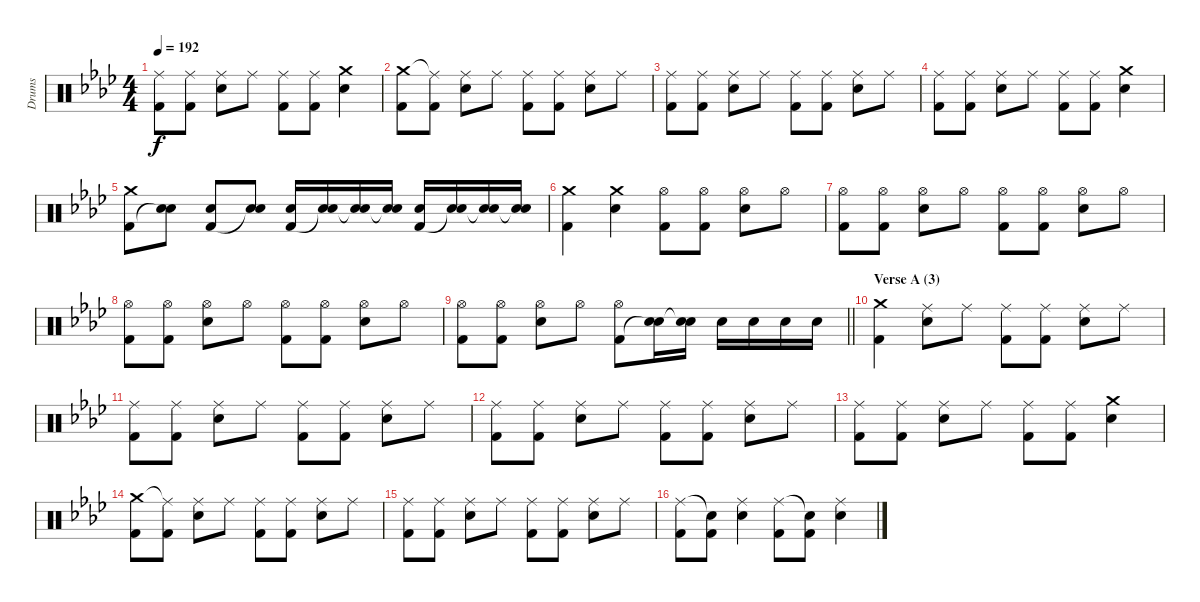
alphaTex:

\track ("Drums" "Drums") {instrument percussion}
\staff {score}
\articulation defaults
\ts (4 4)
\tempo 192
\clef neutral
\ks ab
("Ride (middle)" "Kick (hit) 2").8{dy f} ("Ride (middle)" "Kick (hit) 2").8 ("Ride (middle)" "Electric Snare (hit)").8 "Ride (middle)".8 ("Ride (middle)" "Kick (hit) 2").8 ("Ride (middle)" "Kick (hit) 2").8 ("Crash medium (hit)" "Electric Snare (hit)").4 |
("Crash medium (hit)" "Kick (hit) 2").8 ("Ride (middle)"{t} "Kick (hit) 2").8 ("Ride (middle)" "Electric Snare (hit)").8 "Ride (middle)".8 ("Ride (middle)" "Kick (hit) 2").8 ("Ride (middle)" "Kick (hit) 2").8 ("Ride (middle)" "Electric Snare (hit)").8 "Ride (middle)".8 |
("Ride (middle)" "Kick (hit) 2").8 ("Ride (middle)" "Kick (hit) 2").8 ("Ride (middle)" "Electric Snare (hit)").8 "Ride (middle)".8 ("Ride (middle)" "Kick (hit) 2").8 ("Ride (middle)" "Kick (hit) 2").8 ("Ride (middle)" "Electric Snare (hit)").8 "Ride (middle)".8 |
("Ride (middle)" "Kick (hit) 2").8 ("Ride (middle)" "Kick (hit) 2").8 ("Ride (middle)" "Electric Snare (hit)").8 "Ride (middle)".8 ("Ride (middle)" "Kick (hit) 2").8 ("Ride (middle)" "Kick (hit) 2").8 ("Crash medium (hit)" "Electric Snare (hit)").4 |
("Crash medium (hit)" "Kick (hit) 2").8 ("Electric Snare (hit)" "Snare (hit)"{t}).8 ("Electric Snare (hit)" "Kick (hit) 2").8 ("Electric Snare (hit)" "Snare (hit)"{t}).8 ("Electric Snare (hit)" "Kick (hit) 2").16 ("Electric Snare (hit)" "Snare (hit)"{t}).16 ("Electric Snare (hit)" "Snare (hit)"{t}).16 ("Electric Snare (hit)" "Snare (hit)"{t}).16 ("Electric Snare (hit)" "Kick (hit) 2").16 ("Electric Snare (hit)" "Snare (hit)"{t}).16 ("Electric Snare (hit)" "Snare (hit)"{t}).16 ("Electric Snare (hit)" "Snare (hit)"{t}).16 |
("Crash medium (hit)" "Kick (hit) 2").4 ("Crash medium (hit)" "Electric Snare (hit)").4 ("Hi-Hat (open)" "Kick (hit) 2").8 ("Hi-Hat (open)" "Kick (hit) 2").8 ("Hi-Hat (open)" "Electric Snare (hit)").8 "Hi-Hat (open)".8 |
("Hi-Hat (open)" "Kick (hit) 2").8 ("Hi-Hat (open)" "Kick (hit) 2").8 ("Hi-Hat (open)" "Electric Snare (hit)").8 "Hi-Hat (open)".8 ("Hi-Hat (open)" "Kick (hit) 2").8 ("Hi-Hat (open)" "Kick (hit) 2").8 ("Hi-Hat (open)" "Electric Snare (hit)").8 "Hi-Hat (open)".8 |
("Hi-Hat (open)" "Kick (hit) 2").8 ("Hi-Hat (open)" "Kick (hit) 2").8 ("Hi-Hat (open)" "Electric Snare (hit)").8 "Hi-Hat (open)".8 ("Hi-Hat (open)" "Kick (hit) 2").8 ("Hi-Hat (open)" "Kick (hit) 2").8 ("Hi-Hat (open)" "Electric Snare (hit)").8 "Hi-Hat (open)".8 |
\barLineRight lightlight
("Hi-Hat (open)" "Kick (hit) 2").8 ("Hi-Hat (open)" "Kick (hit) 2").8 ("Hi-Hat (open)" "Electric Snare (hit)").8 "Hi-Hat (open)".8 ("Hi-Hat (open)" "Kick (hit) 2").8 ("Electric Snare (hit)" "Snare (hit)"{t}).16 ("Electric Snare (hit)" "Snare (hit)"{t}).16 "Electric Snare (hit)".16 "Electric Snare (hit)".16 "Electric Snare (hit)".16 "Electric Snare (hit)".16 |
\section ("" "Verse A (3)")
("Crash medium (hit)" "Kick (hit) 2").4 ("Ride (middle)" "Electric Snare (hit)").8 "Ride (middle)".8 ("Ride (middle)" "Kick (hit) 2").8 ("Ride (middle)" "Kick (hit) 2").8 ("Ride (middle)" "Electric Snare (hit)").8 "Ride (middle)".8 |
("Ride (middle)" "Kick (hit) 2").8 ("Ride (middle)" "Kick (hit) 2").8 ("Ride (middle)" "Electric Snare (hit)").8 "Ride (middle)".8 ("Ride (middle)" "Kick (hit) 2").8 ("Ride (middle)" "Kick (hit) 2").8 ("Ride (middle)" "Electric Snare (hit)").8 "Ride (middle)".8 |
("Ride (middle)" "Kick (hit) 2").8 ("Ride (middle)" "Kick (hit) 2").8 ("Ride (middle)" "Electric Snare (hit)").8 "Ride (middle)".8 ("Ride (middle)" "Kick (hit) 2").8 ("Ride (middle)" "Kick (hit) 2").8 ("Ride (middle)" "Electric Snare (hit)").8 "Ride (middle)".8 |
("Ride (middle)" "Kick (hit) 2").8 ("Ride (middle)" "Kick (hit) 2").8 ("Ride (middle)" "Electric Snare (hit)").8 "Ride (middle)".8 ("Ride (middle)" "Kick (hit) 2").8 ("Ride (middle)" "Kick (hit) 2").8 ("Crash medium (hit)" "Electric Snare (hit)").4 |
("Crash medium (hit)" "Kick (hit) 2").8 ("Ride (middle)"{t} "Kick (hit) 2").8 ("Ride (middle)" "Electric Snare (hit)").8 "Ride (middle)".8 ("Ride (middle)" "Kick (hit) 2").8 ("Ride (middle)" "Kick (hit) 2").8 ("Ride (middle)" "Electric Snare (hit)").8 "Ride (middle)".8 |
("Ride (middle)" "Kick (hit) 2").8 ("Ride (middle)" "Kick (hit) 2").8 ("Ride (middle)" "Electric Snare (hit)").8 "Ride (middle)".8 ("Ride (middle)" "Kick (hit) 2").8 ("Ride (middle)" "Kick (hit) 2").8 ("Ride (middle)" "Electric Snare (hit)").8 "Ride (middle)".8 |
("Ride (middle)" "Kick (hit) 2").8 ("Snare (hit)"{t} "Kick (hit) 2").8 ("Ride (middle)" "Electric Snare (hit)").4 ("Ride (middle)" "Kick (hit) 2").8 ("Snare (hit)"{t} "Kick (hit) 2").8 ("Ride (middle)" "Electric Snare (hit)").4
